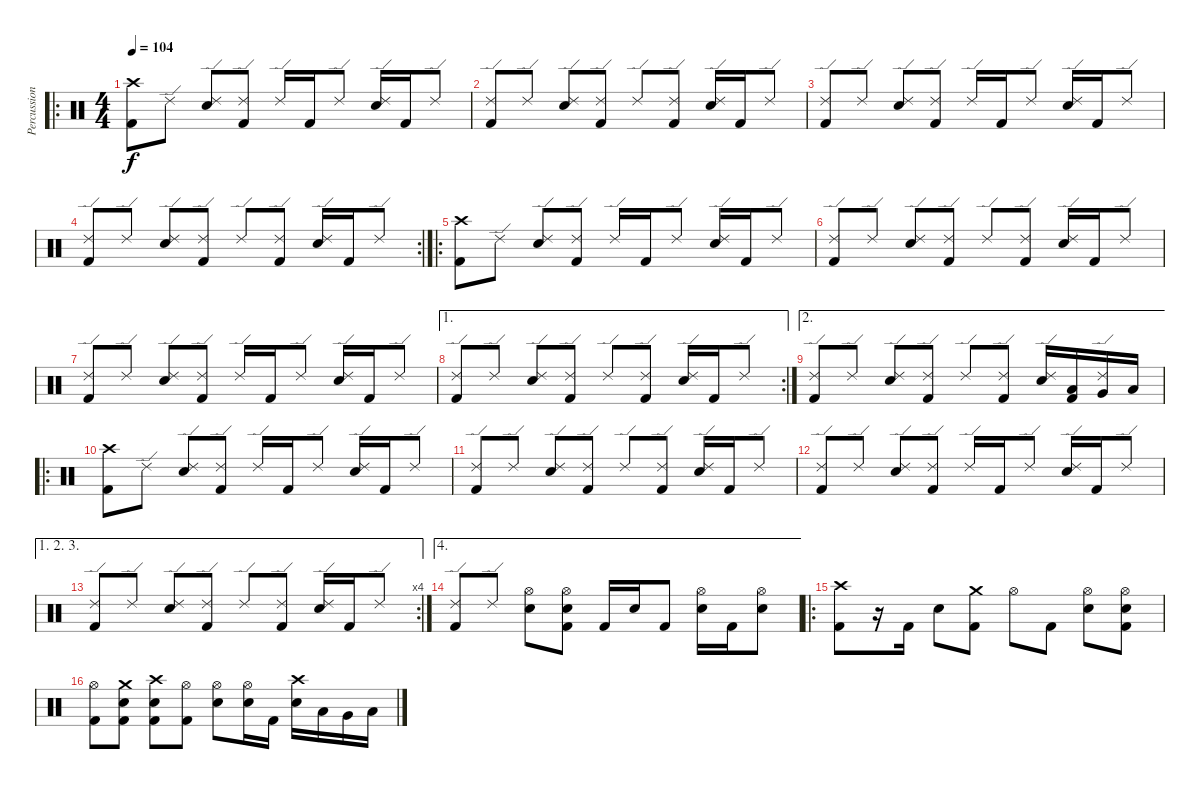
\track ("Percussion" "Percussion") {instrument percussion}
\staff {score}
\articulation defaults
\ro
\ts (4 4)
\tempo 104
\clef neutral
\ks c
("Crash high (hit)" "Kick (hit) 2").8{dy f} "Ride (edge) 2".8 ("Ride (edge) 2" "Snare (hit) 2").8 ("Ride (edge) 2" "Kick (hit) 2").8 "Ride (edge) 2".16 "Kick (hit) 2".16 "Ride (edge) 2".8 ("Ride (edge) 2" "Snare (hit) 2").16 "Kick (hit) 2".16 "Ride (edge) 2".8 |
("Ride (edge) 2" "Kick (hit) 2").8 "Ride (edge) 2".8 ("Ride (edge) 2" "Snare (hit) 2").8 ("Ride (edge) 2" "Kick (hit) 2").8 "Ride (edge) 2".8 ("Ride (edge) 2" "Kick (hit) 2").8 ("Ride (edge) 2" "Snare (hit) 2").16 "Kick (hit) 2".16 "Ride (edge) 2".8 |
("Ride (edge) 2" "Kick (hit) 2").8 "Ride (edge) 2".8 ("Ride (edge) 2" "Snare (hit) 2").8 ("Ride (edge) 2" "Kick (hit) 2").8 "Ride (edge) 2".16 "Kick (hit) 2".16 "Ride (edge) 2".8 ("Ride (edge) 2" "Snare (hit) 2").16 "Kick (hit) 2".16 "Ride (edge) 2".8 |
\rc 2
("Ride (edge) 2" "Kick (hit) 2").8 "Ride (edge) 2".8 ("Ride (edge) 2" "Snare (hit) 2").8 ("Ride (edge) 2" "Kick (hit) 2").8 "Ride (edge) 2".8 ("Ride (edge) 2" "Kick (hit) 2").8 ("Ride (edge) 2" "Snare (hit) 2").16 "Kick (hit) 2".16 "Ride (edge) 2".8 |
\ro
("Crash high (hit)" "Kick (hit) 2").8 "Ride (edge) 2".8 ("Ride (edge) 2" "Snare (hit) 2").8 ("Ride (edge) 2" "Kick (hit) 2").8 "Ride (edge) 2".16 "Kick (hit) 2".16 "Ride (edge) 2".8 ("Ride (edge) 2" "Snare (hit) 2").16 "Kick (hit) 2".16 "Ride (edge) 2".8 |
("Ride (edge) 2" "Kick (hit) 2").8 "Ride (edge) 2".8 ("Ride (edge) 2" "Snare (hit) 2").8 ("Ride (edge) 2" "Kick (hit) 2").8 "Ride (edge) 2".8 ("Ride (edge) 2" "Kick (hit) 2").8 ("Ride (edge) 2" "Snare (hit) 2").16 "Kick (hit) 2".16 "Ride (edge) 2".8 |
("Ride (edge) 2" "Kick (hit) 2").8 "Ride (edge) 2".8 ("Ride (edge) 2" "Snare (hit) 2").8 ("Ride (edge) 2" "Kick (hit) 2").8 "Ride (edge) 2".16 "Kick (hit) 2".16 "Ride (edge) 2".8 ("Ride (edge) 2" "Snare (hit) 2").16 "Kick (hit) 2".16 "Ride (edge) 2".8 |
\ae 1
\rc 2
("Ride (edge) 2" "Kick (hit) 2").8 "Ride (edge) 2".8 ("Ride (edge) 2" "Snare (hit) 2").8 ("Ride (edge) 2" "Kick (hit) 2").8 "Ride (edge) 2".8 ("Ride (edge) 2" "Kick (hit) 2").8 ("Ride (edge) 2" "Snare (hit) 2").16 "Kick (hit) 2".16 "Ride (edge) 2".8 |
\ae 2
("Ride (edge) 2" "Kick (hit) 2").8 "Ride (edge) 2".8 ("Ride (edge) 2" "Snare (hit) 2").8 ("Ride (edge) 2" "Kick (hit) 2").8 "Ride (edge) 2".8 ("Ride (edge) 2" "Kick (hit) 2").8 ("Ride (edge) 2" "Snare (hit) 2").16 ("Low Tom (hit)" "Kick (hit) 2").16 ("Ride (edge) 2" "Very Low Tom (hit)").16 "Low Floor Tom (hit)".16 |
\ro
("Crash high (hit)" "Kick (hit) 2").8 "Ride (edge) 2".8 ("Ride (edge) 2" "Snare (hit) 2").8 ("Ride (edge) 2" "Kick (hit) 2").8 "Ride (edge) 2".16 "Kick (hit) 2".16 "Ride (edge) 2".8 ("Ride (edge) 2" "Snare (hit) 2").16 "Kick (hit) 2".16 "Ride (edge) 2".8 |
("Ride (edge) 2" "Kick (hit) 2").8 "Ride (edge) 2".8 ("Ride (edge) 2" "Snare (hit) 2").8 ("Ride (edge) 2" "Kick (hit) 2").8 "Ride (edge) 2".8 ("Ride (edge) 2" "Kick (hit) 2").8 ("Ride (edge) 2" "Snare (hit) 2").16 "Kick (hit) 2".16 "Ride (edge) 2".8 |
("Ride (edge) 2" "Kick (hit) 2").8 "Ride (edge) 2".8 ("Ride (edge) 2" "Snare (hit) 2").8 ("Ride (edge) 2" "Kick (hit) 2").8 "Ride (edge) 2".16 "Kick (hit) 2".16 "Ride (edge) 2".8 ("Ride (edge) 2" "Snare (hit) 2").16 "Kick (hit) 2".16 "Ride (edge) 2".8 |
\ae (1 2 3)
\rc 4
("Ride (edge) 2" "Kick (hit) 2").8 "Ride (edge) 2".8 ("Ride (edge) 2" "Snare (hit) 2").8 ("Ride (edge) 2" "Kick (hit) 2").8 "Ride (edge) 2".8 ("Ride (edge) 2" "Kick (hit) 2").8 ("Ride (edge) 2" "Snare (hit) 2").16 "Kick (hit) 2".16 "Ride (edge) 2".8 |
\ae 4
("Ride (edge) 2" "Kick (hit) 2").8 "Ride (edge) 2".8 ("Hi-Hat (open)" "Snare (hit) 2").8 ("Hi-Hat (open)" "Snare (hit) 2" "Kick (hit) 2").8 "Kick (hit) 2".16 "Snare (hit) 2".16 "Kick (hit) 2".8 ("Hi-Hat (open)" "Snare (hit) 2").16 "Kick (hit) 2".16 ("Hi-Hat (open)" "Snare (hit) 2").8 |
\ro
("Crash high (hit)" "Kick (hit) 2").8 r.16 "Kick (hit) 2".16 "Electric Snare (hit)".8 ("Crash medium (hit)" "Kick (hit) 2").8 "Hi-Hat (open)".8 "Kick (hit) 2".8 ("Hi-Hat (open)" "Electric Snare (hit)").8 ("Hi-Hat (open)" "Electric Snare (hit)" "Kick (hit) 2").8 |
("Hi-Hat (open)" "Kick (hit) 2").8 ("Crash medium (hit)" "Electric Snare (hit)" "Kick (hit) 2").8 ("Crash high (hit)" "Electric Snare (hit)" "Kick (hit) 2").8 ("Hi-Hat (open)" "Kick (hit) 2").8 ("Hi-Hat (open)" "Electric Snare (hit)").8 ("Hi-Hat (open)" "Electric Snare (hit)").16 "Kick (hit) 2".16 ("Crash high (hit)" "Electric Snare (hit)").16 "Low Tom (hit)".16 "Very Low Tom (hit)".16 "Low Floor Tom (hit)".16
